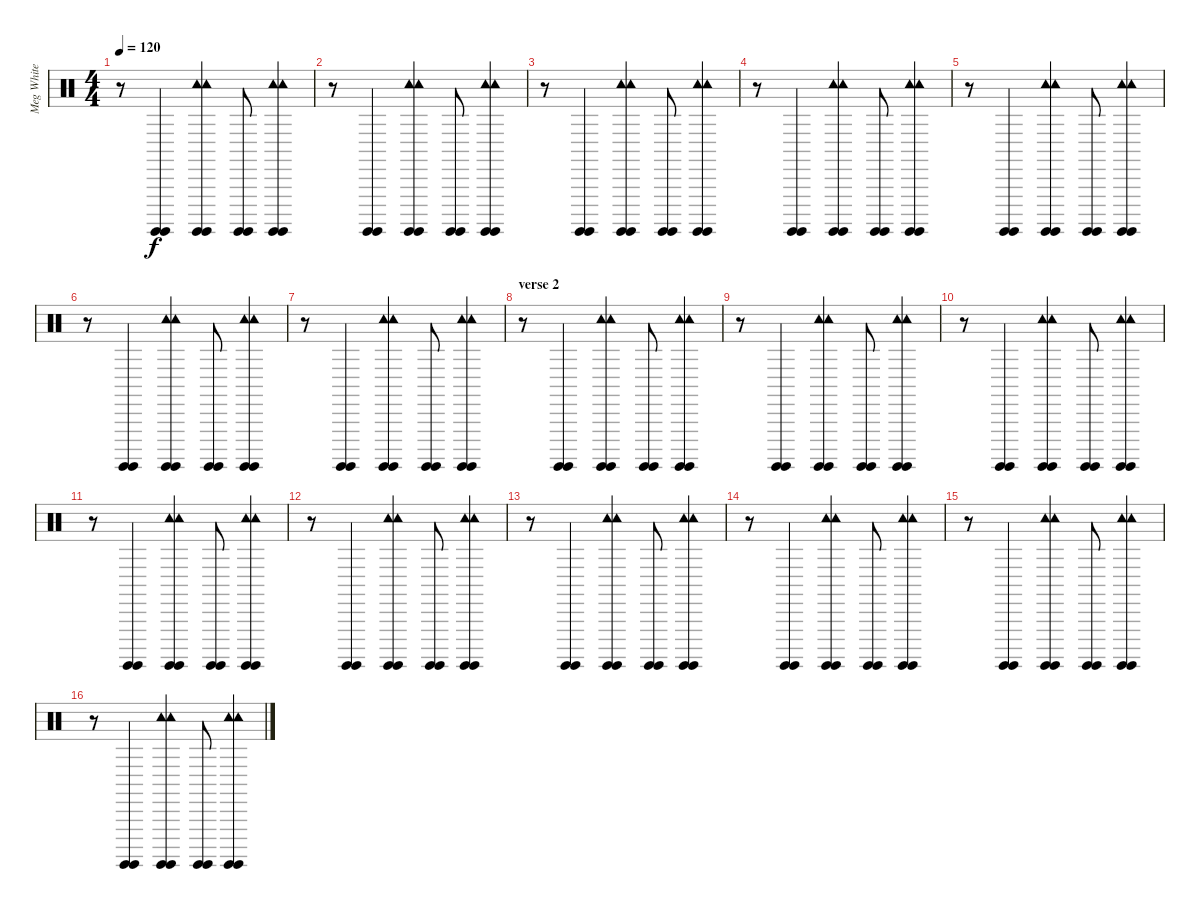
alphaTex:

\track ("Meg White" "Meg White") {instrument percussion}
\staff {score}
\articulation defaults
\ts (4 4)
\tempo 120
\clef neutral
\ks c
r.8{dy f} ("Surdo (hit)" "Surdo (hit)").4 ("Surdo (hit)" "Surdo (hit)" "Tambourine (hit)" "Tambourine (hit)").4 ("Surdo (hit)" "Surdo (hit)").8 ("Surdo (hit)" "Surdo (hit)" "Tambourine (hit)" "Tambourine (hit)").4 |
r.8 ("Surdo (hit)" "Surdo (hit)").4 ("Surdo (hit)" "Surdo (hit)" "Tambourine (hit)" "Tambourine (hit)").4 ("Surdo (hit)" "Surdo (hit)").8 ("Surdo (hit)" "Surdo (hit)" "Tambourine (hit)" "Tambourine (hit)").4 |
r.8 ("Surdo (hit)" "Surdo (hit)").4 ("Surdo (hit)" "Surdo (hit)" "Tambourine (hit)" "Tambourine (hit)").4 ("Surdo (hit)" "Surdo (hit)").8 ("Surdo (hit)" "Surdo (hit)" "Tambourine (hit)" "Tambourine (hit)").4 |
r.8 ("Surdo (hit)" "Surdo (hit)").4 ("Surdo (hit)" "Surdo (hit)" "Tambourine (hit)" "Tambourine (hit)").4 ("Surdo (hit)" "Surdo (hit)").8 ("Surdo (hit)" "Surdo (hit)" "Tambourine (hit)" "Tambourine (hit)").4 |
r.8 ("Surdo (hit)" "Surdo (hit)").4 ("Surdo (hit)" "Surdo (hit)" "Tambourine (hit)" "Tambourine (hit)").4 ("Surdo (hit)" "Surdo (hit)").8 ("Surdo (hit)" "Surdo (hit)" "Tambourine (hit)" "Tambourine (hit)").4 |
r.8 ("Surdo (hit)" "Surdo (hit)").4 ("Surdo (hit)" "Surdo (hit)" "Tambourine (hit)" "Tambourine (hit)").4 ("Surdo (hit)" "Surdo (hit)").8 ("Surdo (hit)" "Surdo (hit)" "Tambourine (hit)" "Tambourine (hit)").4 |
r.8 ("Surdo (hit)" "Surdo (hit)").4 ("Surdo (hit)" "Surdo (hit)" "Tambourine (hit)" "Tambourine (hit)").4 ("Surdo (hit)" "Surdo (hit)").8 ("Surdo (hit)" "Surdo (hit)" "Tambourine (hit)" "Tambourine (hit)").4 |
\section ("" "verse 2")
r.8 ("Surdo (hit)" "Surdo (hit)").4 ("Surdo (hit)" "Surdo (hit)" "Tambourine (hit)" "Tambourine (hit)").4 ("Surdo (hit)" "Surdo (hit)").8 ("Surdo (hit)" "Surdo (hit)" "Tambourine (hit)" "Tambourine (hit)").4 |
r.8 ("Surdo (hit)" "Surdo (hit)").4 ("Surdo (hit)" "Surdo (hit)" "Tambourine (hit)" "Tambourine (hit)").4 ("Surdo (hit)" "Surdo (hit)").8 ("Surdo (hit)" "Surdo (hit)" "Tambourine (hit)" "Tambourine (hit)").4 |
r.8 ("Surdo (hit)" "Surdo (hit)").4 ("Surdo (hit)" "Surdo (hit)" "Tambourine (hit)" "Tambourine (hit)").4 ("Surdo (hit)" "Surdo (hit)").8 ("Surdo (hit)" "Surdo (hit)" "Tambourine (hit)" "Tambourine (hit)").4 |
r.8 ("Surdo (hit)" "Surdo (hit)").4 ("Surdo (hit)" "Surdo (hit)" "Tambourine (hit)" "Tambourine (hit)").4 ("Surdo (hit)" "Surdo (hit)").8 ("Surdo (hit)" "Surdo (hit)" "Tambourine (hit)" "Tambourine (hit)").4 |
r.8 ("Surdo (hit)" "Surdo (hit)").4 ("Surdo (hit)" "Surdo (hit)" "Tambourine (hit)" "Tambourine (hit)").4 ("Surdo (hit)" "Surdo (hit)").8 ("Surdo (hit)" "Surdo (hit)" "Tambourine (hit)" "Tambourine (hit)").4 |
r.8 ("Surdo (hit)" "Surdo (hit)").4 ("Surdo (hit)" "Surdo (hit)" "Tambourine (hit)" "Tambourine (hit)").4 ("Surdo (hit)" "Surdo (hit)").8 ("Surdo (hit)" "Surdo (hit)" "Tambourine (hit)" "Tambourine (hit)").4 |
r.8 ("Surdo (hit)" "Surdo (hit)").4 ("Surdo (hit)" "Surdo (hit)" "Tambourine (hit)" "Tambourine (hit)").4 ("Surdo (hit)" "Surdo (hit)").8 ("Surdo (hit)" "Surdo (hit)" "Tambourine (hit)" "Tambourine (hit)").4 |
r.8 ("Surdo (hit)" "Surdo (hit)").4 ("Surdo (hit)" "Surdo (hit)" "Tambourine (hit)" "Tambourine (hit)").4 ("Surdo (hit)" "Surdo (hit)").8 ("Surdo (hit)" "Surdo (hit)" "Tambourine (hit)" "Tambourine (hit)").4 |
r.8 ("Surdo (hit)" "Surdo (hit)").4 ("Surdo (hit)" "Surdo (hit)" "Tambourine (hit)" "Tambourine (hit)").4 ("Surdo (hit)" "Surdo (hit)").8 ("Surdo (hit)" "Surdo (hit)" "Tambourine (hit)" "Tambourine (hit)").4
